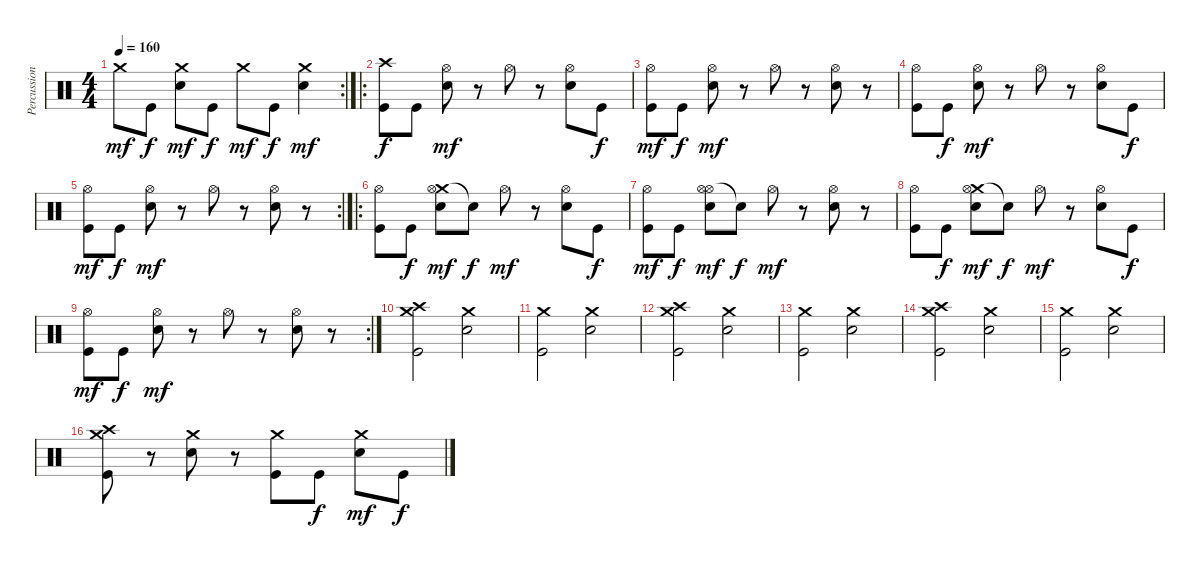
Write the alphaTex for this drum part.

\track ("Percussions" "Percussion") {instrument percussion}
\staff {score}
\articulation defaults
\rc 2
\ts (4 4)
\tempo 160
\clef neutral
\ks c "Crash medium (hit)".8{dy mf} "Kick (hit)".8{dy f}
("Electric Snare (hit)" "Crash medium (hit)").8{dy mf} "Kick (hit)".8{dy f} "Crash medium (hit)".8{dy mf} "Kick (hit)".8{dy f} ("Electric Snare (hit)" "Crash medium (hit)").4{dy mf} |
\ro
("Kick (hit)" "Crash high (hit)").8{dy f} "Kick (hit)".8 ("Electric Snare (hit)" "Hi-Hat (open)").8{dy mf} r.8 "Hi-Hat (open)".8 r.8 ("Electric Snare (hit)" "Hi-Hat (open)").8 "Kick (hit)".8{dy f} |
("Kick (hit)" "Hi-Hat (open)").8{dy mf} "Kick (hit)".8{dy f} ("Electric Snare (hit)" "Hi-Hat (open)").8{dy mf} r.8 "Hi-Hat (open)".8 r.8 ("Electric Snare (hit)" "Hi-Hat (open)").8 r.8 |
("Kick (hit)" "Hi-Hat (open)").8 "Kick (hit)".8{dy f} ("Electric Snare (hit)" "Hi-Hat (open)").8{dy mf} r.8 "Hi-Hat (open)".8 r.8 ("Electric Snare (hit)" "Hi-Hat (open)").8 "Kick (hit)".8{dy f} |
\rc 2
("Kick (hit)" "Hi-Hat (open)").8{dy mf} "Kick (hit)".8{dy f} ("Electric Snare (hit)" "Hi-Hat (open)").8{dy mf} r.8 "Hi-Hat (open)".8 r.8 ("Electric Snare (hit)" "Hi-Hat (open)").8 r.8 |
\ro
("Kick (hit)" "Hi-Hat (open)").8 "Kick (hit)".8{dy f} ("Crash medium (hit)" "Electric Snare (hit)" "Hi-Hat (open)").8{dy mf} "Snare (hit)"{t}.8{dy f} "Hi-Hat (open)".8{dy mf} r.8 ("Electric Snare (hit)" "Hi-Hat (open)").8 "Kick (hit)".8{dy f} |
("Kick (hit)" "Hi-Hat (open)").8{dy mf} "Kick (hit)".8{dy f} ("Hi-Hat (open)" "Electric Snare (hit)" "Hi-Hat (open)").8{dy mf} "Snare (hit)"{t}.8{dy f} "Hi-Hat (open)".8{dy mf} r.8 ("Electric Snare (hit)" "Hi-Hat (open)").8 r.8 |
("Kick (hit)" "Hi-Hat (open)").8 "Kick (hit)".8{dy f} ("Crash medium (hit)" "Electric Snare (hit)" "Hi-Hat (open)").8{dy mf} "Snare (hit)"{t}.8{dy f} "Hi-Hat (open)".8{dy mf} r.8 ("Electric Snare (hit)" "Hi-Hat (open)").8 "Kick (hit)".8{dy f} |
\rc 2
("Kick (hit)" "Hi-Hat (open)").8{dy mf} "Kick (hit)".8{dy f} ("Electric Snare (hit)" "Hi-Hat (open)").8{dy mf} r.8 "Hi-Hat (open)".8 r.8 ("Electric Snare (hit)" "Hi-Hat (open)").8 r.8 |
("Kick (hit)" "Crash medium (hit)" "Crash high (hit)").2 ("Electric Snare (hit)" "Crash medium (hit)").2 |
("Kick (hit)" "Crash medium (hit)").2 ("Electric Snare (hit)" "Crash medium (hit)").2 |
("Kick (hit)" "Crash medium (hit)" "Crash high (hit)").2 ("Electric Snare (hit)" "Crash medium (hit)").2 |
("Kick (hit)" "Crash medium (hit)").2 ("Electric Snare (hit)" "Crash medium (hit)").2 |
("Kick (hit)" "Crash medium (hit)" "Crash high (hit)").2 ("Electric Snare (hit)" "Crash medium (hit)").2 |
("Kick (hit)" "Crash medium (hit)").2 ("Electric Snare (hit)" "Crash medium (hit)").2 |
("Kick (hit)" "Crash medium (hit)" "Crash high (hit)").8 r.8 ("Electric Snare (hit)" "Crash medium (hit)").8 r.8 ("Kick (hit)" "Crash medium (hit)").8 "Kick (hit)".8{dy f} ("Electric Snare (hit)" "Crash medium (hit)").8{dy mf} "Kick (hit)".8{dy f}
